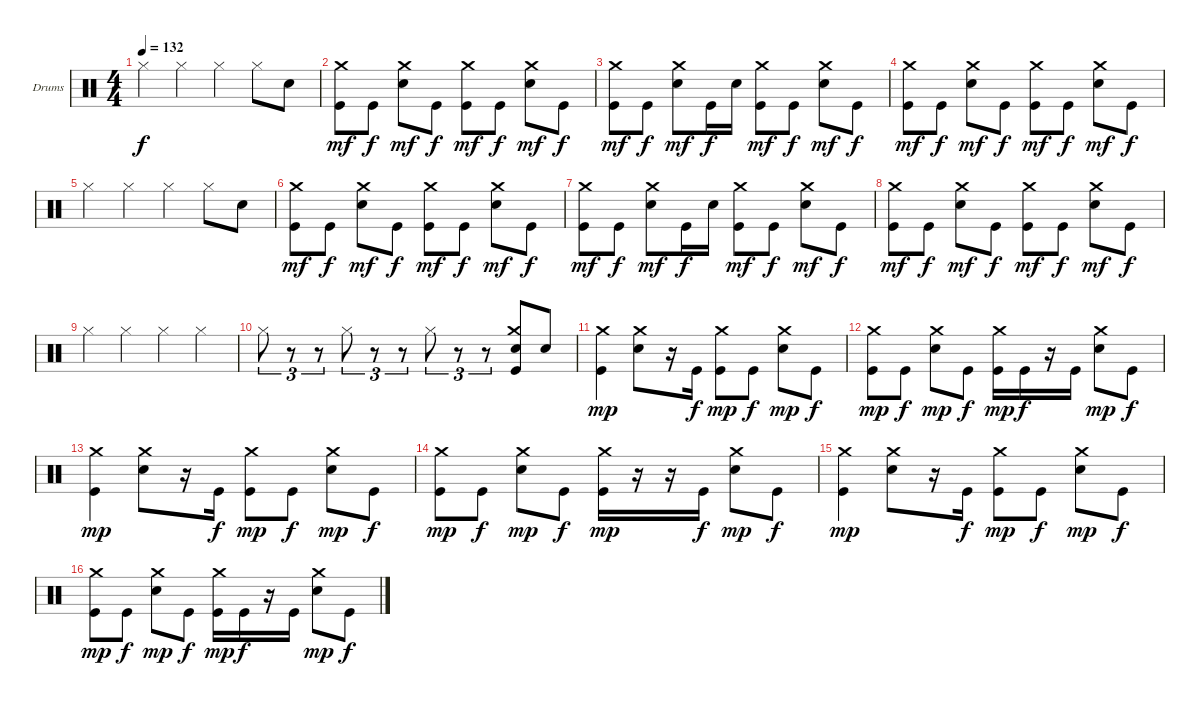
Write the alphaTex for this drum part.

\bracketExtendMode groupsimilarinstruments
\firstSystemTrackNameOrientation horizontal
\otherSystemsTrackNameOrientation horizontal
\track ("Drumkit" "Drums") {instrument percussion}
\staff {score}
\articulation defaults
\ts (4 4)
\tempo 132
\clef neutral
\ks c "Hi-Hat (closed)".4{dy f} "Hi-Hat (closed)".4 "Hi-Hat (closed)".4 "Hi-Hat (closed)".8 "Snare (hit) 2".8
|
("Crash medium (hit)" "Kick (hit)").8{dy mf} "Kick (hit)".8{dy f} ("Crash medium (hit)" "Snare (hit) 2").8{dy mf} "Kick (hit)".8{dy f} ("Crash medium (hit)" "Kick (hit)").8{dy mf} "Kick (hit)".8{dy f} ("Crash medium (hit)" "Snare (hit) 2").8{dy mf} "Kick (hit)".8{dy f} |
("Crash medium (hit)" "Kick (hit)").8{dy mf} "Kick (hit)".8{dy f} ("Crash medium (hit)" "Snare (hit) 2").8{dy mf} "Kick (hit)".16{dy f} "Snare (hit) 2".16 ("Crash medium (hit)" "Kick (hit)").8{dy mf} "Kick (hit)".8{dy f} ("Crash medium (hit)" "Snare (hit) 2").8{dy mf} "Kick (hit)".8{dy f} |
("Crash medium (hit)" "Kick (hit)").8{dy mf} "Kick (hit)".8{dy f} ("Crash medium (hit)" "Snare (hit) 2").8{dy mf} "Kick (hit)".8{dy f} ("Crash medium (hit)" "Kick (hit)").8{dy mf} "Kick (hit)".8{dy f} ("Crash medium (hit)" "Snare (hit) 2").8{dy mf} "Kick (hit)".8{dy f} |
"Hi-Hat (closed)".4 "Hi-Hat (closed)".4 "Hi-Hat (closed)".4 "Hi-Hat (closed)".8 "Snare (hit) 2".8 |
("Crash medium (hit)" "Kick (hit)").8{dy mf} "Kick (hit)".8{dy f} ("Crash medium (hit)" "Snare (hit) 2").8{dy mf} "Kick (hit)".8{dy f} ("Crash medium (hit)" "Kick (hit)").8{dy mf} "Kick (hit)".8{dy f} ("Crash medium (hit)" "Snare (hit) 2").8{dy mf} "Kick (hit)".8{dy f} |
("Crash medium (hit)" "Kick (hit)").8{dy mf} "Kick (hit)".8{dy f} ("Crash medium (hit)" "Snare (hit) 2").8{dy mf} "Kick (hit)".16{dy f} "Snare (hit) 2".16 ("Crash medium (hit)" "Kick (hit)").8{dy mf} "Kick (hit)".8{dy f} ("Crash medium (hit)" "Snare (hit) 2").8{dy mf} "Kick (hit)".8{dy f} |
("Crash medium (hit)" "Kick (hit)").8{dy mf} "Kick (hit)".8{dy f} ("Crash medium (hit)" "Snare (hit) 2").8{dy mf} "Kick (hit)".8{dy f} ("Crash medium (hit)" "Kick (hit)").8{dy mf} "Kick (hit)".8{dy f} ("Crash medium (hit)" "Snare (hit) 2").8{dy mf} "Kick (hit)".8{dy f} |
"Hi-Hat (closed)".4 "Hi-Hat (closed)".4 "Hi-Hat (closed)".4 "Hi-Hat (closed)".4 |
"Hi-Hat (closed)".8{tu (3 2)} r.8{tu (3 2)} r.8{tu (3 2)} "Hi-Hat (closed)".8{tu (3 2)} r.8{tu (3 2)} r.8{tu (3 2)} "Hi-Hat (closed)".8{tu (3 2)} r.8{tu (3 2)} r.8{tu (3 2)} ("Crash medium (hit)" "Snare (hit) 2" "Kick (hit)").8 "Snare (hit) 2".8 |
("Crash medium (hit)" "Kick (hit)").4{dy mp} ("Crash medium (hit)" "Snare (hit) 2").8 r.16 "Kick (hit)".16{dy f} ("Crash medium (hit)" "Kick (hit)").8{dy mp} "Kick (hit)".8{dy f} ("Crash medium (hit)" "Snare (hit) 2").8{dy mp} "Kick (hit)".8{dy f} |
("Crash medium (hit)" "Kick (hit)").8{dy mp} "Kick (hit)".8{dy f} ("Crash medium (hit)" "Snare (hit) 2").8{dy mp} "Kick (hit)".8{dy f} ("Crash medium (hit)" "Kick (hit)").16{dy mp} "Kick (hit)".16{dy f} r.16 "Kick (hit)".16 ("Crash medium (hit)" "Snare (hit) 2").8{dy mp} "Kick (hit)".8{dy f} |
("Crash medium (hit)" "Kick (hit)").4{dy mp} ("Crash medium (hit)" "Snare (hit) 2").8 r.16 "Kick (hit)".16{dy f} ("Crash medium (hit)" "Kick (hit)").8{dy mp} "Kick (hit)".8{dy f} ("Crash medium (hit)" "Snare (hit) 2").8{dy mp} "Kick (hit)".8{dy f} |
("Crash medium (hit)" "Kick (hit)").8{dy mp} "Kick (hit)".8{dy f} ("Crash medium (hit)" "Snare (hit) 2").8{dy mp} "Kick (hit)".8{dy f} ("Crash medium (hit)" "Kick (hit)").16{dy mp} r.16 r.16 "Kick (hit)".16{dy f} ("Crash medium (hit)" "Snare (hit) 2").8{dy mp} "Kick (hit)".8{dy f} |
("Crash medium (hit)" "Kick (hit)").4{dy mp} ("Crash medium (hit)" "Snare (hit) 2").8 r.16 "Kick (hit)".16{dy f} ("Crash medium (hit)" "Kick (hit)").8{dy mp} "Kick (hit)".8{dy f} ("Crash medium (hit)" "Snare (hit) 2").8{dy mp} "Kick (hit)".8{dy f} |
("Crash medium (hit)" "Kick (hit)").8{dy mp} "Kick (hit)".8{dy f} ("Crash medium (hit)" "Snare (hit) 2").8{dy mp} "Kick (hit)".8{dy f} ("Crash medium (hit)" "Kick (hit)").16{dy mp} "Kick (hit)".16{dy f} r.16 "Kick (hit)".16 ("Crash medium (hit)" "Snare (hit) 2").8{dy mp} "Kick (hit)".8{dy f}
